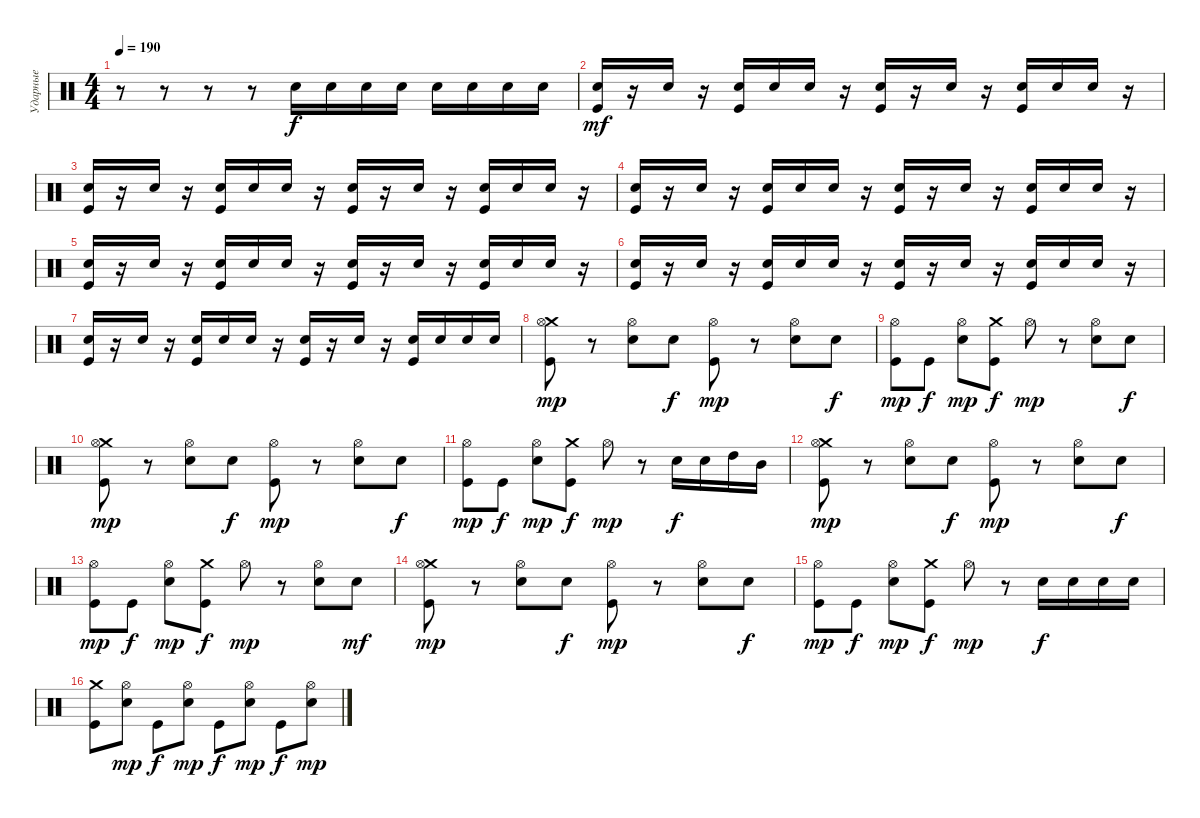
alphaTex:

\track ("Ударные" "Ударные") {instrument percussion}
\staff {score}
\articulation defaults
\ts (4 4)
\tempo 190
\clef neutral
\ks c
r.8{dy f} r.8 r.8 r.8 "Electric Snare (hit)".16 "Electric Snare (hit)".16 "Electric Snare (hit)".16 "Electric Snare (hit)".16 "Electric Snare (hit)".16 "Electric Snare (hit)".16 "Electric Snare (hit)".16 "Electric Snare (hit)".16 |
("Electric Snare (hit)" "Kick (hit)").16{dy mf} r.16 "Electric Snare (hit)".16 r.16 ("Electric Snare (hit)" "Kick (hit)").16 "Electric Snare (hit)".16 "Electric Snare (hit)".16 r.16 ("Electric Snare (hit)" "Kick (hit)").16 r.16 "Electric Snare (hit)".16 r.16 ("Electric Snare (hit)" "Kick (hit)").16 "Electric Snare (hit)".16 "Electric Snare (hit)".16 r.16 |
("Electric Snare (hit)" "Kick (hit)").16 r.16 "Electric Snare (hit)".16 r.16 ("Electric Snare (hit)" "Kick (hit)").16 "Electric Snare (hit)".16 "Electric Snare (hit)".16 r.16 ("Electric Snare (hit)" "Kick (hit)").16 r.16 "Electric Snare (hit)".16 r.16 ("Electric Snare (hit)" "Kick (hit)").16 "Electric Snare (hit)".16 "Electric Snare (hit)".16 r.16 |
("Electric Snare (hit)" "Kick (hit)").16 r.16 "Electric Snare (hit)".16 r.16 ("Electric Snare (hit)" "Kick (hit)").16 "Electric Snare (hit)".16 "Electric Snare (hit)".16 r.16 ("Electric Snare (hit)" "Kick (hit)").16 r.16 "Electric Snare (hit)".16 r.16 ("Electric Snare (hit)" "Kick (hit)").16 "Electric Snare (hit)".16 "Electric Snare (hit)".16 r.16 |
("Electric Snare (hit)" "Kick (hit)").16 r.16 "Electric Snare (hit)".16 r.16 ("Electric Snare (hit)" "Kick (hit)").16 "Electric Snare (hit)".16 "Electric Snare (hit)".16 r.16 ("Electric Snare (hit)" "Kick (hit)").16 r.16 "Electric Snare (hit)".16 r.16 ("Electric Snare (hit)" "Kick (hit)").16 "Electric Snare (hit)".16 "Electric Snare (hit)".16 r.16 |
("Electric Snare (hit)" "Kick (hit)").16 r.16 "Electric Snare (hit)".16 r.16 ("Electric Snare (hit)" "Kick (hit)").16 "Electric Snare (hit)".16 "Electric Snare (hit)".16 r.16 ("Electric Snare (hit)" "Kick (hit)").16 r.16 "Electric Snare (hit)".16 r.16 ("Electric Snare (hit)" "Kick (hit)").16 "Electric Snare (hit)".16 "Electric Snare (hit)".16 r.16 |
("Electric Snare (hit)" "Kick (hit)").16 r.16 "Electric Snare (hit)".16 r.16 ("Electric Snare (hit)" "Kick (hit)").16 "Electric Snare (hit)".16 "Electric Snare (hit)".16 r.16 ("Electric Snare (hit)" "Kick (hit)").16 r.16 "Electric Snare (hit)".16 r.16 ("Electric Snare (hit)" "Kick (hit)").16 "Electric Snare (hit)".16 "Electric Snare (hit)".16 "Electric Snare (hit)".16 |
("Crash medium (hit)" "Kick (hit)" "Hi-Hat (open)").8{dy mp} r.8 ("Electric Snare (hit)" "Hi-Hat (open)").8 "Electric Snare (hit)".8{dy f} ("Kick (hit)" "Hi-Hat (open)").8{dy mp} r.8 ("Electric Snare (hit)" "Hi-Hat (open)").8 "Electric Snare (hit)".8{dy f} |
("Kick (hit)" "Hi-Hat (open)").8{dy mp} "Kick (hit)".8{dy f} ("Electric Snare (hit)" "Hi-Hat (open)").8{dy mp} ("Crash medium (hit)" "Kick (hit)").8{dy f} "Hi-Hat (open)".8{dy mp} r.8 ("Electric Snare (hit)" "Hi-Hat (open)").8 "Electric Snare (hit)".8{dy f} |
("Crash medium (hit)" "Kick (hit)" "Hi-Hat (open)").8{dy mp} r.8 ("Electric Snare (hit)" "Hi-Hat (open)").8 "Electric Snare (hit)".8{dy f} ("Kick (hit)" "Hi-Hat (open)").8{dy mp} r.8 ("Electric Snare (hit)" "Hi-Hat (open)").8 "Electric Snare (hit)".8{dy f} |
("Kick (hit)" "Hi-Hat (open)").8{dy mp} "Kick (hit)".8{dy f} ("Electric Snare (hit)" "Hi-Hat (open)").8{dy mp} ("Crash medium (hit)" "Kick (hit)").8{dy f} "Hi-Hat (open)".8{dy mp} r.8 "Electric Snare (hit)".16{dy f} "Electric Snare (hit)".16 "High Tom (hit)".16 "Mid Tom (hit)".16 |
("Crash medium (hit)" "Kick (hit)" "Hi-Hat (open)").8{dy mp} r.8 ("Electric Snare (hit)" "Hi-Hat (open)").8 "Electric Snare (hit)".8{dy f} ("Kick (hit)" "Hi-Hat (open)").8{dy mp} r.8 ("Electric Snare (hit)" "Hi-Hat (open)").8 "Electric Snare (hit)".8{dy f} |
("Kick (hit)" "Hi-Hat (open)").8{dy mp} "Kick (hit)".8{dy f} ("Electric Snare (hit)" "Hi-Hat (open)").8{dy mp} ("Crash medium (hit)" "Kick (hit)").8{dy f} "Hi-Hat (open)".8{dy mp} r.8 ("Electric Snare (hit)" "Hi-Hat (open)").8 "Electric Snare (hit)".8{dy mf} |
("Crash medium (hit)" "Kick (hit)" "Hi-Hat (open)").8{dy mp} r.8 ("Electric Snare (hit)" "Hi-Hat (open)").8 "Electric Snare (hit)".8{dy f} ("Kick (hit)" "Hi-Hat (open)").8{dy mp} r.8 ("Electric Snare (hit)" "Hi-Hat (open)").8 "Electric Snare (hit)".8{dy f} |
("Kick (hit)" "Hi-Hat (open)").8{dy mp} "Kick (hit)".8{dy f} ("Electric Snare (hit)" "Hi-Hat (open)").8{dy mp} ("Crash medium (hit)" "Kick (hit)").8{dy f} "Hi-Hat (open)".8{dy mp} r.8 "Electric Snare (hit)".16{dy f} "Electric Snare (hit)".16 "Electric Snare (hit)".16 "Electric Snare (hit)".16 |
("Kick (hit)" "Crash medium (hit)").8 ("Electric Snare (hit)" "Hi-Hat (open)").8{dy mp} "Kick (hit)".8{dy f} ("Electric Snare (hit)" "Hi-Hat (open)").8{dy mp} "Kick (hit)".8{dy f} ("Electric Snare (hit)" "Hi-Hat (open)").8{dy mp} "Kick (hit)".8{dy f} ("Electric Snare (hit)" "Hi-Hat (open)").8{dy mp}
